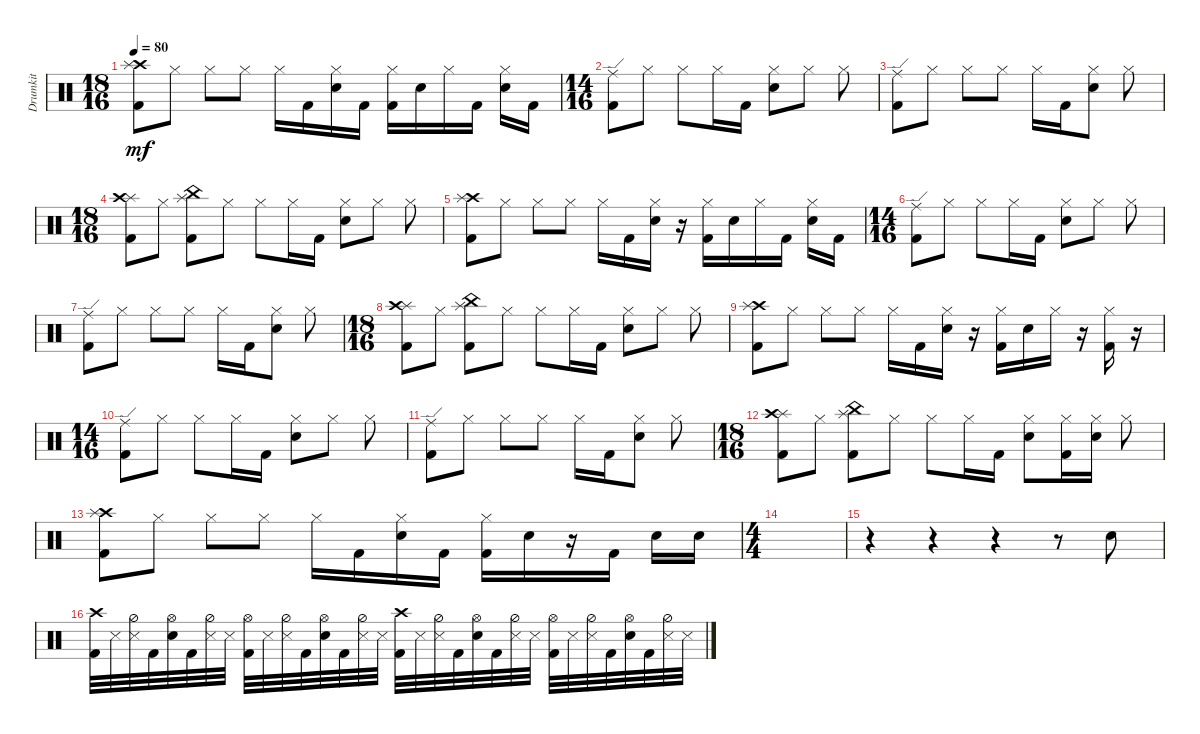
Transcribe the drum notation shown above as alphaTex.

\track ("Drumkit" "Drumkit") {instrument percussion}
\staff {score}
\articulation defaults
\ts (18 16)
\tempo 80
\clef neutral
\ks c
("Crash high (hit)" "Splash (hit)" "Kick (hit) 2").8{dy mf} "Hi-Hat (closed)".8 "Hi-Hat (closed)".8 "Hi-Hat (closed)".8 "Hi-Hat (closed)".16 "Kick (hit) 2".16 ("Snare (hit) 2" "Hi-Hat (closed)").16 "Kick (hit) 2".16 ("Kick (hit) 2" "Hi-Hat (closed)").16 "Snare (hit) 2".16 "Hi-Hat (closed)".16 "Kick (hit) 2".16 ("Snare (hit) 2" "Hi-Hat (closed)").16 "Kick (hit) 2".16 |
\ts (14 16)
("Kick (hit) 2" "Ride (edge)").8 "Hi-Hat (closed)".8 "Hi-Hat (closed)".8 "Hi-Hat (closed)".16 "Kick (hit) 2".16 ("Snare (hit) 2" "Hi-Hat (closed)").8 "Hi-Hat (closed)".8 "Hi-Hat (closed)".8 |
("Ride (edge)" "Kick (hit) 2").8 "Hi-Hat (closed)".8 "Hi-Hat (closed)".8 "Hi-Hat (closed)".8 "Hi-Hat (closed)".16 "Kick (hit) 2".16 ("Snare (hit) 2" "Hi-Hat (closed)").8 "Hi-Hat (closed)".8 |
\ts (18 16)
("Kick (hit) 2" "Splash (hit)" "Crash high (hit)").8 "Hi-Hat (closed)".8 ("China (hit)" "Splash (hit)" "Kick (hit) 2").8 "Hi-Hat (closed)".8 "Hi-Hat (closed)".8 "Hi-Hat (closed)".16 "Kick (hit) 2".16 ("Snare (hit) 2" "Hi-Hat (closed)").8 "Hi-Hat (closed)".8 "Hi-Hat (closed)".8 |
("Crash high (hit)" "Splash (hit)" "Kick (hit) 2").8 "Hi-Hat (closed)".8 "Hi-Hat (closed)".8 "Hi-Hat (closed)".8 "Hi-Hat (closed)".16 "Kick (hit) 2".16 ("Snare (hit) 2" "Hi-Hat (closed)").16 r.16 ("Kick (hit) 2" "Hi-Hat (closed)").16 "Snare (hit) 2".16 "Hi-Hat (closed)".16 "Kick (hit) 2".16 ("Snare (hit) 2" "Hi-Hat (closed)").16 "Kick (hit) 2".16 |
\ts (14 16)
("Kick (hit) 2" "Ride (edge)").8 "Hi-Hat (closed)".8 "Hi-Hat (closed)".8 "Hi-Hat (closed)".16 "Kick (hit) 2".16 ("Snare (hit) 2" "Hi-Hat (closed)").8 "Hi-Hat (closed)".8 "Hi-Hat (closed)".8 |
("Ride (edge)" "Kick (hit) 2").8 "Hi-Hat (closed)".8 "Hi-Hat (closed)".8 "Hi-Hat (closed)".8 "Hi-Hat (closed)".16 "Kick (hit) 2".16 ("Snare (hit) 2" "Hi-Hat (closed)").8 "Hi-Hat (closed)".8 |
\ts (18 16)
("Kick (hit) 2" "Splash (hit)" "Crash high (hit)").8 "Hi-Hat (closed)".8 ("China (hit)" "Splash (hit)" "Kick (hit) 2").8 "Hi-Hat (closed)".8 "Hi-Hat (closed)".8 "Hi-Hat (closed)".16 "Kick (hit) 2".16 ("Snare (hit) 2" "Hi-Hat (closed)").8 "Hi-Hat (closed)".8 "Hi-Hat (closed)".8 |
("Crash high (hit)" "Splash (hit)" "Kick (hit) 2").8 "Hi-Hat (closed)".8 "Hi-Hat (closed)".8 "Hi-Hat (closed)".8 "Hi-Hat (closed)".16 "Kick (hit) 2".16 ("Snare (hit) 2" "Hi-Hat (closed)").16 r.16 ("Kick (hit) 2" "Hi-Hat (closed)").16 "Snare (hit) 2".16 "Hi-Hat (closed)".16 r.16 ("Hi-Hat (closed)" "Kick (hit) 2").16 r.16 |
\ts (14 16)
("Kick (hit) 2" "Ride (edge)").8 "Hi-Hat (closed)".8 "Hi-Hat (closed)".8 "Hi-Hat (closed)".16 "Kick (hit) 2".16 ("Snare (hit) 2" "Hi-Hat (closed)").8 "Hi-Hat (closed)".8 "Hi-Hat (closed)".8 |
("Ride (edge)" "Kick (hit) 2").8 "Hi-Hat (closed)".8 "Hi-Hat (closed)".8 "Hi-Hat (closed)".8 "Hi-Hat (closed)".16 "Kick (hit) 2".16 ("Snare (hit) 2" "Hi-Hat (closed)").8 "Hi-Hat (closed)".8 |
\ts (18 16)
("Kick (hit) 2" "Splash (hit)" "Crash high (hit)").8 "Hi-Hat (closed)".8 ("China (hit)" "Splash (hit)" "Kick (hit) 2").8 "Hi-Hat (closed)".8 "Hi-Hat (closed)".8 "Hi-Hat (closed)".16 "Kick (hit) 2".16 ("Snare (hit) 2" "Hi-Hat (closed)").8 ("Hi-Hat (closed)" "Kick (hit) 2").16 ("Hi-Hat (closed)" "Snare (hit) 2").16 "Hi-Hat (closed)".8 |
("Crash high (hit)" "Splash (hit)" "Kick (hit) 2").8 "Hi-Hat (closed)".8 "Hi-Hat (closed)".8 "Hi-Hat (closed)".8 "Hi-Hat (closed)".16 "Kick (hit) 2".16 ("Snare (hit) 2" "Hi-Hat (closed)").16 "Kick (hit) 2".16 ("Kick (hit) 2" "Hi-Hat (closed)").16 "Snare (hit) 2".16 r.16 "Kick (hit) 2".16 "Snare (hit) 2".16 "Snare (hit) 2".16 |
\ts (4 4)
|
r.4 r.4 r.4 r.8 "Snare (hit) 2".8 |
("Kick (hit) 2" "Crash high (hit)").32 "Snare (side stick) 3".32 ("Snare (side stick) 3" "Hi-Hat (half)").32 "Kick (hit) 2".32 ("Snare (hit) 2" "Hi-Hat (open)").32 "Kick (hit) 2".32 ("Snare (side stick) 3" "Hi-Hat (half)").32 "Snare (side stick) 3".32 ("Hi-Hat (open)" "Kick (hit) 2").32 "Snare (side stick) 3".32 ("Snare (side stick) 3" "Hi-Hat (half)").32 "Kick (hit) 2".32 ("Snare (hit) 2" "Hi-Hat (open)").32 "Kick (hit) 2".32 ("Hi-Hat (half)" "Snare (side stick) 3").32 "Snare (side stick) 3".32 ("Kick (hit) 2" "Crash high (hit)").32 "Snare (side stick) 3".32 ("Snare (side stick) 3" "Hi-Hat (half)").32 "Kick (hit) 2".32 ("Snare (hit) 2" "Hi-Hat (open)").32 "Kick (hit) 2".32 ("Snare (side stick) 3" "Hi-Hat (half)").32 "Snare (side stick) 3".32 ("Hi-Hat (open)" "Kick (hit) 2").32 "Snare (side stick) 3".32 ("Snare (side stick) 3" "Hi-Hat (half)").32 "Kick (hit) 2".32 ("Snare (hit) 2" "Hi-Hat (open)").32 "Kick (hit) 2".32 ("Hi-Hat (half)" "Snare (side stick) 3").32 "Snare (side stick) 3".32
